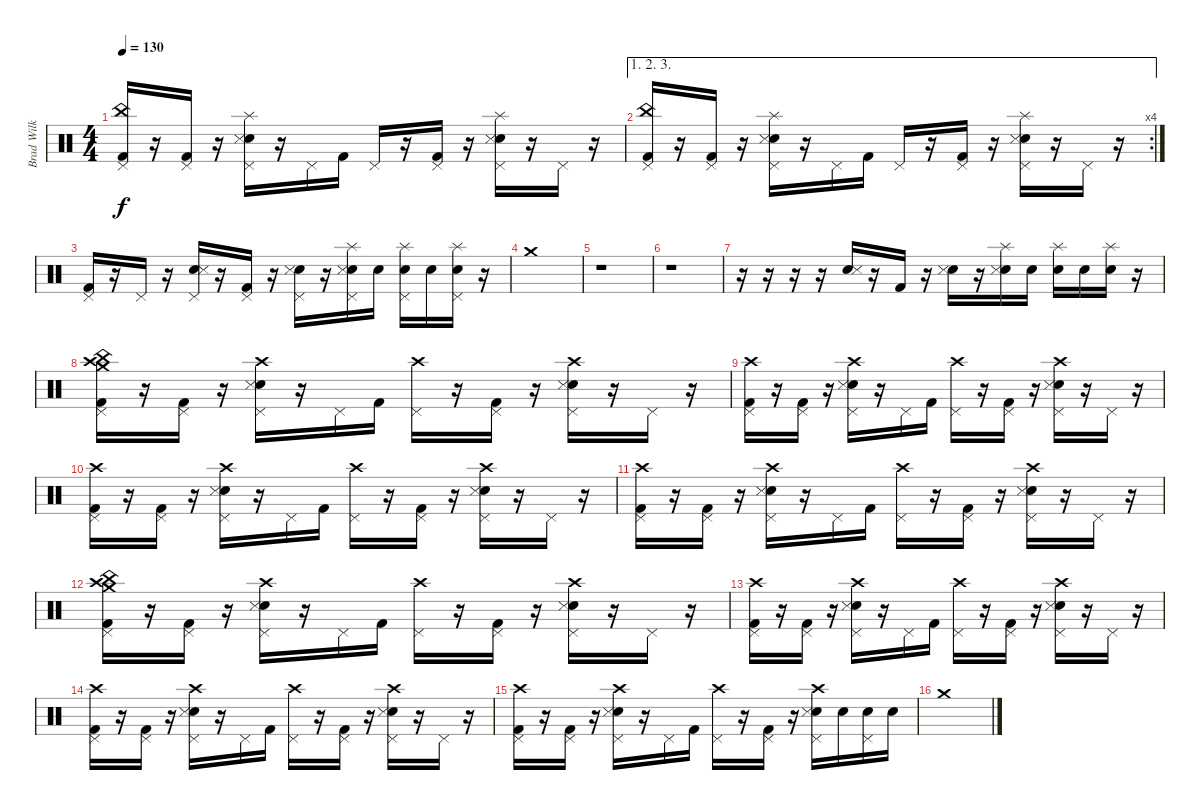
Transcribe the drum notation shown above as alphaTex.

\track ("Brad Wilk - Drums" "Brad Wilk ") {instrument percussion}
\staff {score}
\articulation defaults
\ts (4 4)
\tempo 130
\clef neutral
\ks c
("Kick (hit) 2" "China (hit)" "Pedal Hi-Hat (hit)").16{dy f} r.16 ("Kick (hit) 2" "Pedal Hi-Hat (hit)").16 r.16 ("Snare (hit) 2" "Snare (side stick) 3" "Splash (hit)" "Pedal Hi-Hat (hit)").16 r.16 "Pedal Hi-Hat (hit)".16 "Kick (hit) 2".16 "Pedal Hi-Hat (hit)".16 r.16 ("Kick (hit) 2" "Pedal Hi-Hat (hit)").16 r.16 ("Snare (hit) 2" "Snare (side stick) 3" "Splash (hit)" "Pedal Hi-Hat (hit)").16 r.16 "Pedal Hi-Hat (hit)".16 r.16 |
\ae (1 2 3)
\rc 4
("Kick (hit) 2" "China (hit)" "Pedal Hi-Hat (hit)").16 r.16 ("Kick (hit) 2" "Pedal Hi-Hat (hit)").16 r.16 ("Snare (hit) 2" "Snare (side stick) 3" "Splash (hit)" "Pedal Hi-Hat (hit)").16 r.16 "Pedal Hi-Hat (hit)".16 "Kick (hit) 2".16 "Pedal Hi-Hat (hit)".16 r.16 ("Kick (hit) 2" "Pedal Hi-Hat (hit)").16 r.16 ("Snare (hit) 2" "Snare (side stick) 3" "Splash (hit)" "Pedal Hi-Hat (hit)").16 r.16 "Pedal Hi-Hat (hit)".16 r.16 |
("Kick (hit) 2" "Pedal Hi-Hat (hit)").16 r.16 "Pedal Hi-Hat (hit)".16 r.16 ("Snare (hit) 2" "Snare (side stick) 3" "Pedal Hi-Hat (hit)").16 r.16 ("Kick (hit) 2" "Pedal Hi-Hat (hit)").16 r.16 ("Snare (hit) 2" "Snare (side stick) 3" "Pedal Hi-Hat (hit)").16 r.16 ("Snare (hit) 2" "Snare (side stick) 3" "Splash (hit)" "Pedal Hi-Hat (hit)").16 "Snare (hit) 2".16 ("Snare (hit) 2" "Splash (hit)" "Pedal Hi-Hat (hit)").16 "Snare (hit) 2".16 ("Snare (hit) 2" "Splash (hit)" "Pedal Hi-Hat (hit)").16 r.16 |
"Crash medium (hit)".1 |
r.1 |
r.1 |
r.16 r.16 r.16 r.16 ("Snare (hit) 2" "Snare (side stick) 3").16 r.16 "Kick (hit) 2".16 r.16 ("Snare (hit) 2" "Snare (side stick) 3").16 r.16 ("Snare (hit) 2" "Snare (side stick) 3" "Splash (hit)").16 "Snare (hit) 2".16 ("Snare (hit) 2" "Splash (hit)").16 "Snare (hit) 2".16 ("Snare (hit) 2" "Splash (hit)").16 r.16 |
("Kick (hit) 2" "Crash medium (hit)" "Crash high (hit)" "China (hit)" "Pedal Hi-Hat (hit)").16 r.16 ("Kick (hit) 2" "Pedal Hi-Hat (hit)").16 r.16 ("Snare (hit) 2" "Snare (side stick) 3" "Crash high (hit)" "Pedal Hi-Hat (hit)").16 r.16 "Pedal Hi-Hat (hit)".16 "Kick (hit) 2".16 ("Crash high (hit)" "Pedal Hi-Hat (hit)").16 r.16 ("Kick (hit) 2" "Pedal Hi-Hat (hit)").16 r.16 ("Snare (hit) 2" "Snare (side stick) 3" "Crash high (hit)" "Pedal Hi-Hat (hit)").16 r.16 "Pedal Hi-Hat (hit)".16 r.16 |
("Kick (hit) 2" "Crash high (hit)" "Pedal Hi-Hat (hit)").16 r.16 ("Kick (hit) 2" "Pedal Hi-Hat (hit)").16 r.16 ("Snare (hit) 2" "Snare (side stick) 3" "Crash high (hit)" "Pedal Hi-Hat (hit)").16 r.16 "Pedal Hi-Hat (hit)".16 "Kick (hit) 2".16 ("Crash high (hit)" "Pedal Hi-Hat (hit)").16 r.16 ("Kick (hit) 2" "Pedal Hi-Hat (hit)").16 r.16 ("Snare (hit) 2" "Snare (side stick) 3" "Crash high (hit)" "Pedal Hi-Hat (hit)").16 r.16 "Pedal Hi-Hat (hit)".16 r.16 |
("Kick (hit) 2" "Crash high (hit)" "Pedal Hi-Hat (hit)").16 r.16 ("Kick (hit) 2" "Pedal Hi-Hat (hit)").16 r.16 ("Snare (hit) 2" "Snare (side stick) 3" "Crash high (hit)" "Pedal Hi-Hat (hit)").16 r.16 "Pedal Hi-Hat (hit)".16 "Kick (hit) 2".16 ("Crash high (hit)" "Pedal Hi-Hat (hit)").16 r.16 ("Kick (hit) 2" "Pedal Hi-Hat (hit)").16 r.16 ("Snare (hit) 2" "Snare (side stick) 3" "Crash high (hit)" "Pedal Hi-Hat (hit)").16 r.16 "Pedal Hi-Hat (hit)".16 r.16 |
("Kick (hit) 2" "Crash high (hit)" "Pedal Hi-Hat (hit)").16 r.16 ("Kick (hit) 2" "Pedal Hi-Hat (hit)").16 r.16 ("Snare (hit) 2" "Snare (side stick) 3" "Crash high (hit)" "Pedal Hi-Hat (hit)").16 r.16 "Pedal Hi-Hat (hit)".16 "Kick (hit) 2".16 ("Crash high (hit)" "Pedal Hi-Hat (hit)").16 r.16 ("Kick (hit) 2" "Pedal Hi-Hat (hit)").16 r.16 ("Snare (hit) 2" "Snare (side stick) 3" "Crash high (hit)" "Pedal Hi-Hat (hit)").16 r.16 "Pedal Hi-Hat (hit)".16 r.16 |
("Kick (hit) 2" "Crash medium (hit)" "Crash high (hit)" "China (hit)" "Pedal Hi-Hat (hit)").16 r.16 ("Kick (hit) 2" "Pedal Hi-Hat (hit)").16 r.16 ("Snare (hit) 2" "Snare (side stick) 3" "Crash high (hit)" "Pedal Hi-Hat (hit)").16 r.16 "Pedal Hi-Hat (hit)".16 "Kick (hit) 2".16 ("Crash high (hit)" "Pedal Hi-Hat (hit)").16 r.16 ("Kick (hit) 2" "Pedal Hi-Hat (hit)").16 r.16 ("Snare (hit) 2" "Snare (side stick) 3" "Crash high (hit)" "Pedal Hi-Hat (hit)").16 r.16 "Pedal Hi-Hat (hit)".16 r.16 |
("Kick (hit) 2" "Crash high (hit)" "Pedal Hi-Hat (hit)").16 r.16 ("Kick (hit) 2" "Pedal Hi-Hat (hit)").16 r.16 ("Snare (hit) 2" "Snare (side stick) 3" "Crash high (hit)" "Pedal Hi-Hat (hit)").16 r.16 "Pedal Hi-Hat (hit)".16 "Kick (hit) 2".16 ("Crash high (hit)" "Pedal Hi-Hat (hit)").16 r.16 ("Kick (hit) 2" "Pedal Hi-Hat (hit)").16 r.16 ("Snare (hit) 2" "Snare (side stick) 3" "Crash high (hit)" "Pedal Hi-Hat (hit)").16 r.16 "Pedal Hi-Hat (hit)".16 r.16 |
("Kick (hit) 2" "Crash high (hit)" "Pedal Hi-Hat (hit)").16 r.16 ("Kick (hit) 2" "Pedal Hi-Hat (hit)").16 r.16 ("Snare (hit) 2" "Snare (side stick) 3" "Crash high (hit)" "Pedal Hi-Hat (hit)").16 r.16 "Pedal Hi-Hat (hit)".16 "Kick (hit) 2".16 ("Crash high (hit)" "Pedal Hi-Hat (hit)").16 r.16 ("Kick (hit) 2" "Pedal Hi-Hat (hit)").16 r.16 ("Snare (hit) 2" "Snare (side stick) 3" "Crash high (hit)" "Pedal Hi-Hat (hit)").16 r.16 "Pedal Hi-Hat (hit)".16 r.16 |
("Kick (hit) 2" "Crash high (hit)" "Pedal Hi-Hat (hit)").16 r.16 ("Kick (hit) 2" "Pedal Hi-Hat (hit)").16 r.16 ("Snare (hit) 2" "Snare (side stick) 3" "Crash high (hit)" "Pedal Hi-Hat (hit)").16 r.16 "Pedal Hi-Hat (hit)".16 "Kick (hit) 2".16 ("Crash high (hit)" "Pedal Hi-Hat (hit)").16 r.16 ("Kick (hit) 2" "Pedal Hi-Hat (hit)").16 r.16 ("Snare (hit) 2" "Snare (side stick) 3" "Crash high (hit)" "Pedal Hi-Hat (hit)").16 "Snare (hit) 2".16 ("Snare (hit) 2" "Pedal Hi-Hat (hit)").16 "Snare (hit) 2".16 |
"Crash medium (hit)".1
